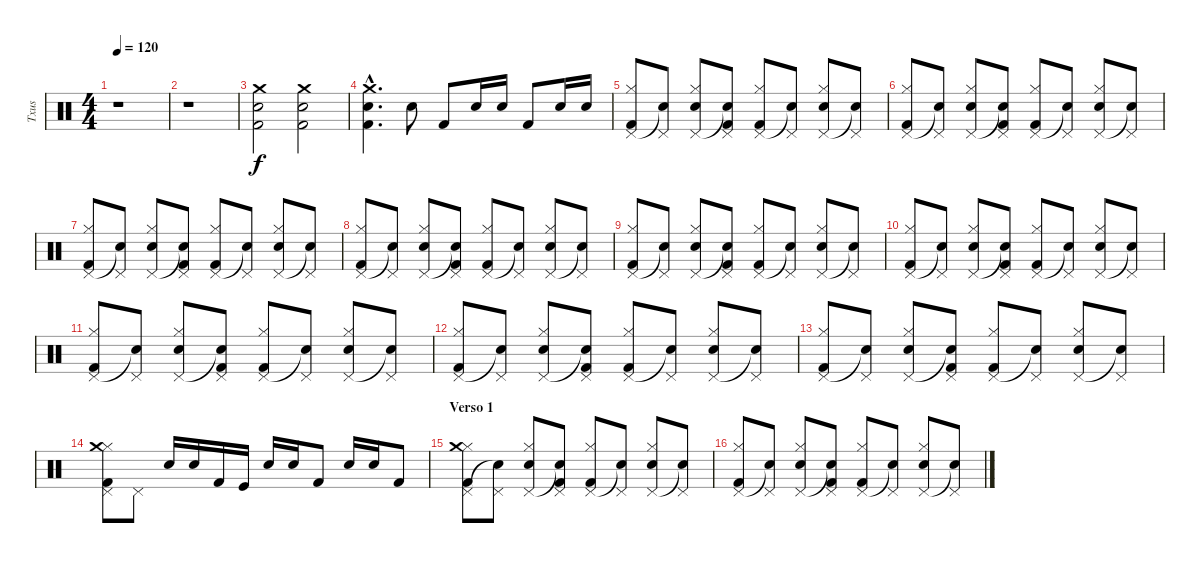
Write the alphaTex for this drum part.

\track ("Txus" "Txus") {instrument percussion}
\staff {score}
\articulation defaults
\ts (4 4)
\tempo 120
\clef neutral
\ks c
r.1{dy f} |
r.1 |
("Crash medium (hit)" "Snare (hit) 2" "Kick (hit) 2").2 ("Crash medium (hit)" "Snare (hit) 2" "Kick (hit) 2").2 |
("Crash medium (hit)"{hac} "Snare (hit) 2"{hac} "Kick (hit) 2"{hac}).4{d} "Snare (hit) 2".8 "Kick (hit) 2".8 "Snare (hit) 2".16 "Snare (hit) 2".16 "Kick (hit) 2".8 "Snare (hit) 2".16 "Snare (hit) 2".16 |
("Hi-Hat (closed)" "Pedal Hi-Hat (hit)" "Kick (hit) 2").8 ("Pedal Hi-Hat (hit)" "Snare (hit)"{t}).8 ("Hi-Hat (closed)" "Pedal Hi-Hat (hit)" "Snare (hit) 2").8 ("Pedal Hi-Hat (hit)" "Snare (hit)"{t} "Kick (hit) 2").8 ("Hi-Hat (closed)" "Pedal Hi-Hat (hit)" "Kick (hit) 2").8 ("Pedal Hi-Hat (hit)" "Snare (hit)"{t}).8 ("Hi-Hat (closed)" "Pedal Hi-Hat (hit)" "Snare (hit) 2").8 ("Pedal Hi-Hat (hit)" "Snare (hit) 2"{t}).8 |
("Hi-Hat (closed)" "Pedal Hi-Hat (hit)" "Kick (hit) 2").8 ("Pedal Hi-Hat (hit)" "Snare (hit)"{t}).8 ("Hi-Hat (closed)" "Pedal Hi-Hat (hit)" "Snare (hit) 2").8 ("Pedal Hi-Hat (hit)" "Snare (hit)"{t} "Kick (hit) 2").8 ("Hi-Hat (closed)" "Pedal Hi-Hat (hit)" "Kick (hit) 2").8 ("Pedal Hi-Hat (hit)" "Snare (hit)"{t}).8 ("Hi-Hat (closed)" "Pedal Hi-Hat (hit)" "Snare (hit) 2").8 ("Pedal Hi-Hat (hit)" "Snare (hit) 2"{t}).8 |
("Hi-Hat (closed)" "Pedal Hi-Hat (hit)" "Kick (hit) 2").8 ("Pedal Hi-Hat (hit)" "Snare (hit)"{t}).8 ("Hi-Hat (closed)" "Pedal Hi-Hat (hit)" "Snare (hit) 2").8 ("Pedal Hi-Hat (hit)" "Snare (hit)"{t} "Kick (hit) 2").8 ("Hi-Hat (closed)" "Pedal Hi-Hat (hit)" "Kick (hit) 2").8 ("Pedal Hi-Hat (hit)" "Snare (hit)"{t}).8 ("Hi-Hat (closed)" "Pedal Hi-Hat (hit)" "Snare (hit) 2").8 ("Pedal Hi-Hat (hit)" "Snare (hit) 2"{t}).8 |
("Hi-Hat (closed)" "Pedal Hi-Hat (hit)" "Kick (hit) 2").8 ("Pedal Hi-Hat (hit)" "Snare (hit)"{t}).8 ("Hi-Hat (closed)" "Pedal Hi-Hat (hit)" "Snare (hit) 2").8 ("Pedal Hi-Hat (hit)" "Snare (hit)"{t} "Kick (hit) 2").8 ("Hi-Hat (closed)" "Pedal Hi-Hat (hit)" "Kick (hit) 2").8 ("Pedal Hi-Hat (hit)" "Snare (hit)"{t}).8 ("Hi-Hat (closed)" "Pedal Hi-Hat (hit)" "Snare (hit) 2").8 ("Pedal Hi-Hat (hit)" "Snare (hit) 2"{t}).8 |
("Hi-Hat (closed)" "Pedal Hi-Hat (hit)" "Kick (hit) 2").8 ("Pedal Hi-Hat (hit)" "Snare (hit)"{t}).8 ("Hi-Hat (closed)" "Pedal Hi-Hat (hit)" "Snare (hit) 2").8 ("Pedal Hi-Hat (hit)" "Snare (hit)"{t} "Kick (hit) 2").8 ("Hi-Hat (closed)" "Pedal Hi-Hat (hit)" "Kick (hit) 2").8 ("Pedal Hi-Hat (hit)" "Snare (hit)"{t}).8 ("Hi-Hat (closed)" "Pedal Hi-Hat (hit)" "Snare (hit) 2").8 ("Pedal Hi-Hat (hit)" "Snare (hit) 2"{t}).8 |
("Hi-Hat (closed)" "Pedal Hi-Hat (hit)" "Kick (hit) 2").8 ("Pedal Hi-Hat (hit)" "Snare (hit)"{t}).8 ("Hi-Hat (closed)" "Pedal Hi-Hat (hit)" "Snare (hit) 2").8 ("Pedal Hi-Hat (hit)" "Snare (hit)"{t} "Kick (hit) 2").8 ("Hi-Hat (closed)" "Pedal Hi-Hat (hit)" "Kick (hit) 2").8 ("Pedal Hi-Hat (hit)" "Snare (hit)"{t}).8 ("Hi-Hat (closed)" "Pedal Hi-Hat (hit)" "Snare (hit) 2").8 ("Pedal Hi-Hat (hit)" "Snare (hit) 2"{t}).8 |
("Hi-Hat (closed)" "Pedal Hi-Hat (hit)" "Kick (hit) 2").8 ("Pedal Hi-Hat (hit)" "Snare (hit)"{t}).8 ("Hi-Hat (closed)" "Pedal Hi-Hat (hit)" "Snare (hit) 2").8 ("Pedal Hi-Hat (hit)" "Snare (hit)"{t} "Kick (hit) 2").8 ("Hi-Hat (closed)" "Pedal Hi-Hat (hit)" "Kick (hit) 2").8 ("Pedal Hi-Hat (hit)" "Snare (hit)"{t}).8 ("Hi-Hat (closed)" "Pedal Hi-Hat (hit)" "Snare (hit) 2").8 ("Pedal Hi-Hat (hit)" "Snare (hit) 2"{t}).8 |
("Hi-Hat (closed)" "Pedal Hi-Hat (hit)" "Kick (hit) 2").8 ("Pedal Hi-Hat (hit)" "Snare (hit)"{t}).8 ("Hi-Hat (closed)" "Pedal Hi-Hat (hit)" "Snare (hit) 2").8 ("Pedal Hi-Hat (hit)" "Snare (hit)"{t} "Kick (hit) 2").8 ("Hi-Hat (closed)" "Pedal Hi-Hat (hit)" "Kick (hit) 2").8 ("Pedal Hi-Hat (hit)" "Snare (hit)"{t}).8 ("Hi-Hat (closed)" "Pedal Hi-Hat (hit)" "Snare (hit) 2").8 ("Pedal Hi-Hat (hit)" "Snare (hit) 2"{t}).8 |
("Hi-Hat (closed)" "Pedal Hi-Hat (hit)" "Kick (hit) 2").8 ("Pedal Hi-Hat (hit)" "Snare (hit)"{t}).8 ("Hi-Hat (closed)" "Pedal Hi-Hat (hit)" "Snare (hit) 2").8 ("Pedal Hi-Hat (hit)" "Snare (hit)"{t} "Kick (hit) 2").8 ("Hi-Hat (closed)" "Pedal Hi-Hat (hit)" "Kick (hit) 2").8 ("Pedal Hi-Hat (hit)" "Snare (hit)"{t}).8 ("Hi-Hat (closed)" "Pedal Hi-Hat (hit)" "Snare (hit) 2").8 ("Pedal Hi-Hat (hit)" "Snare (hit) 2"{t}).8 |
("Hi-Hat (closed)" "Pedal Hi-Hat (hit)" "Crash medium (hit)" "Kick (hit) 2").8 "Pedal Hi-Hat (hit)".8 "Snare (hit) 2".16 "Snare (hit) 2".16 "Kick (hit) 2".16 "Kick (hit)".16 "Snare (hit) 2".16 "Snare (hit) 2".16 "Kick (hit) 2".8 "Snare (hit) 2".16 "Snare (hit) 2".16 "Kick (hit) 2".8 |
\section ("" "Verso 1")
("Hi-Hat (closed)" "Pedal Hi-Hat (hit)" "Crash medium (hit)" "Kick (hit) 2").8 ("Pedal Hi-Hat (hit)" "Snare (hit)"{t}).8 ("Hi-Hat (closed)" "Pedal Hi-Hat (hit)" "Snare (hit) 2").8 ("Pedal Hi-Hat (hit)" "Snare (hit)"{t} "Kick (hit) 2").8 ("Hi-Hat (closed)" "Pedal Hi-Hat (hit)" "Kick (hit) 2").8 ("Pedal Hi-Hat (hit)" "Snare (hit)"{t}).8 ("Hi-Hat (closed)" "Pedal Hi-Hat (hit)" "Snare (hit) 2").8 ("Pedal Hi-Hat (hit)" "Snare (hit) 2"{t}).8 |
("Hi-Hat (closed)" "Pedal Hi-Hat (hit)" "Kick (hit) 2").8 ("Pedal Hi-Hat (hit)" "Snare (hit)"{t}).8 ("Hi-Hat (closed)" "Pedal Hi-Hat (hit)" "Snare (hit) 2").8 ("Pedal Hi-Hat (hit)" "Snare (hit)"{t} "Kick (hit) 2").8 ("Hi-Hat (closed)" "Pedal Hi-Hat (hit)" "Kick (hit) 2").8 ("Pedal Hi-Hat (hit)" "Snare (hit)"{t}).8 ("Hi-Hat (closed)" "Pedal Hi-Hat (hit)" "Snare (hit) 2").8 ("Pedal Hi-Hat (hit)" "Snare (hit) 2"{t}).8
